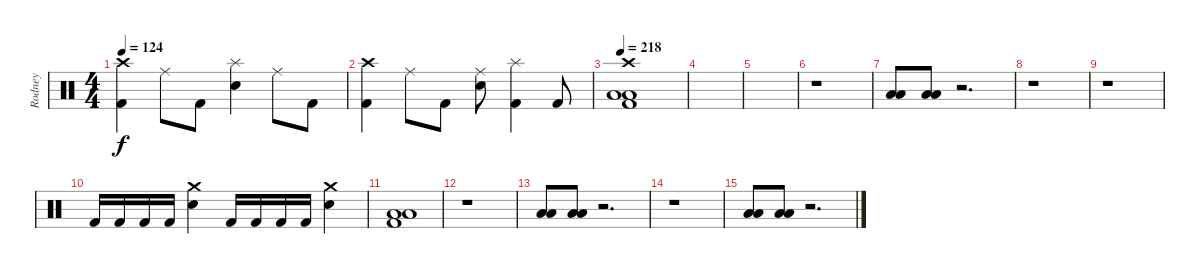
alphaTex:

\track ("Rodney" "Rodney") {instrument percussion}
\staff {score}
\articulation defaults
\ts (4 4)
\tempo 124
\clef neutral
\ks c
("Crash high (hit)" "Kick (hit) 2").4{dy f} "Ride (middle)".8 "Kick (hit) 2".8 ("Splash (hit)" "Snare (hit) 2").4 "Ride (middle)".8 "Kick (hit) 2".8 |
("Crash high (hit)" "Kick (hit) 2").4 "Ride (middle)".8 "Kick (hit) 2".8 ("Ride (middle)" "Snare (hit) 2").8 ("Splash (hit)" "Kick (hit) 2").4 "Kick (hit) 2".8 |
\tempo 218
("Crash high (hit)" "Low Tom (hit)" "Low Floor Tom (hit)" "Kick (hit) 2").1 |
|
|
r.1 |
("Low Tom (hit)" "Low Tom (hit)").8 ("Low Tom (hit)" "Low Tom (hit)").8 r.2{d} |
r.1 |
r.1 |
"Kick (hit) 2".16 "Kick (hit) 2".16 "Kick (hit) 2".16 "Kick (hit) 2".16 ("Crash medium (hit)" "Snare (hit) 2").4 "Kick (hit) 2".16 "Kick (hit) 2".16 "Kick (hit) 2".16 "Kick (hit) 2".16 ("Crash medium (hit)" "Snare (hit) 2").4 |
("Low Tom (hit)" "Low Floor Tom (hit)" "Kick (hit) 2").1 |
r.1 |
("Low Tom (hit)" "Low Tom (hit)").8 ("Low Tom (hit)" "Low Tom (hit)").8 r.2{d} |
r.1 |
("Low Tom (hit)" "Low Tom (hit)").8 ("Low Tom (hit)" "Low Tom (hit)").8 r.2{d}
